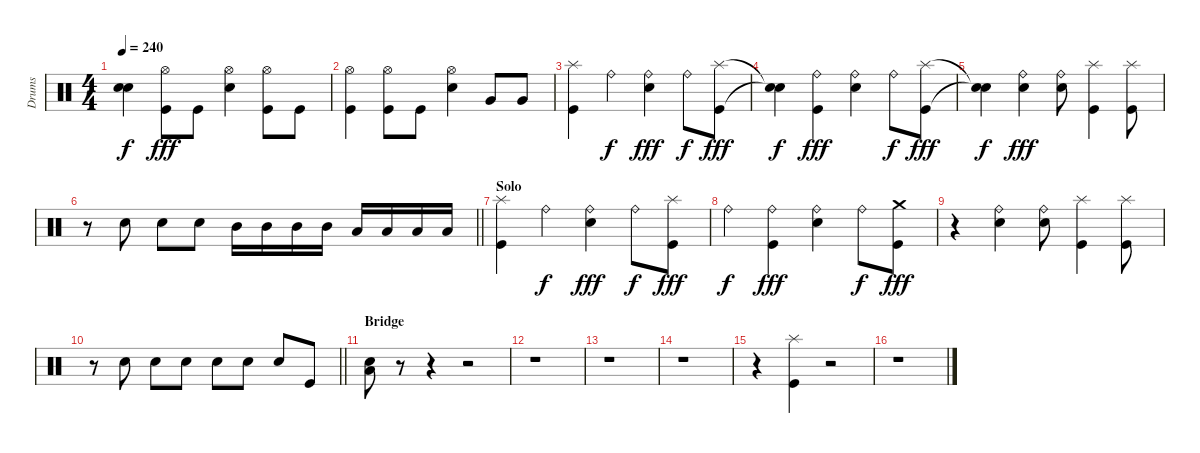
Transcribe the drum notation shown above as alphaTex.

\track ("Drums" "Drums") {instrument percussion}
\staff {score}
\articulation defaults
\ts (4 4)
\tempo 240
\clef neutral
\ks c
("Snare (hit)"{t} "Snare (hit)"{t}).4{dy f} ("Kick (hit)" "Hi-Hat (open)").8{dy fff} "Kick (hit)".8 ("Electric Snare (hit)" "Hi-Hat (open)").4 ("Kick (hit)" "Hi-Hat (open)").8 "Kick (hit)".8 |
("Kick (hit)" "Hi-Hat (open)").4 ("Kick (hit)" "Hi-Hat (open)").8 "Kick (hit)".8 ("Electric Snare (hit)" "Hi-Hat (open)").4 "Very Low Tom (hit)".8 "Very Low Tom (hit)".8 |
("Kick (hit)" "Splash (hit)").4 "Ride (bell)".4{dy f} ("Electric Snare (hit)" "Ride (bell)").4{dy fff} "Ride (bell)".8{dy f} ("Kick (hit)" "Splash (hit)").8{dy fff} |
("Snare (hit)"{t} "Snare (hit)"{t}).4{dy f} ("Kick (hit)" "Ride (bell)").4{dy fff} ("Electric Snare (hit)" "Ride (bell)").4 "Ride (bell)".8{dy f} ("Kick (hit)" "Splash (hit)").8{dy fff} |
("Snare (hit)"{t} "Snare (hit)"{t}).4{dy f} ("Electric Snare (hit)" "Ride (bell)").4{dy fff} ("Electric Snare (hit)" "Ride (bell)").8 ("Kick (hit)" "Splash (hit)").4 ("Kick (hit)" "Splash (hit)").8 |
\barLineRight lightlight
r.8 "Electric Snare (hit)".8 "Electric Snare (hit)".8 "Electric Snare (hit)".8 "Mid Tom (hit)".16 "Mid Tom (hit)".16 "Mid Tom (hit)".16 "Mid Tom (hit)".16 "Low Tom (hit)".16 "Low Tom (hit)".16 "Low Tom (hit)".16 "Low Tom (hit)".16 |
\section ("" "Solo")
("Kick (hit)" "Splash (hit)").4 "Ride (bell)".4{dy f} ("Electric Snare (hit)" "Ride (bell)").4{dy fff} "Ride (bell)".8{dy f} ("Kick (hit)" "Splash (hit)").8{dy fff} |
"Ride (bell)".4{dy f} ("Kick (hit)" "Ride (bell)").4{dy fff} ("Electric Snare (hit)" "Ride (bell)").4 "Ride (bell)".8{dy f} ("Kick (hit)" "Crash medium (hit)").8{dy fff} |
r.4 ("Electric Snare (hit)" "Ride (bell)").4 ("Electric Snare (hit)" "Ride (bell)").8 ("Kick (hit)" "Splash (hit)").4 ("Kick (hit)" "Splash (hit)").8 |
\barLineRight lightlight
r.8 "Electric Snare (hit)".8 "Electric Snare (hit)".8 "Electric Snare (hit)".8 "Electric Snare (hit)".8 "Electric Snare (hit)".8 "Electric Snare (hit)".8 "Kick (hit)".8 |
\section ("" "Bridge")
("Electric Snare (hit)" "Low Floor Tom (hit)").8 r.8 r.4 r.2 |
r.1 |
r.1 |
r.1 |
r.4 ("Kick (hit)" "Splash (hit)").4 r.2 |
r.1
